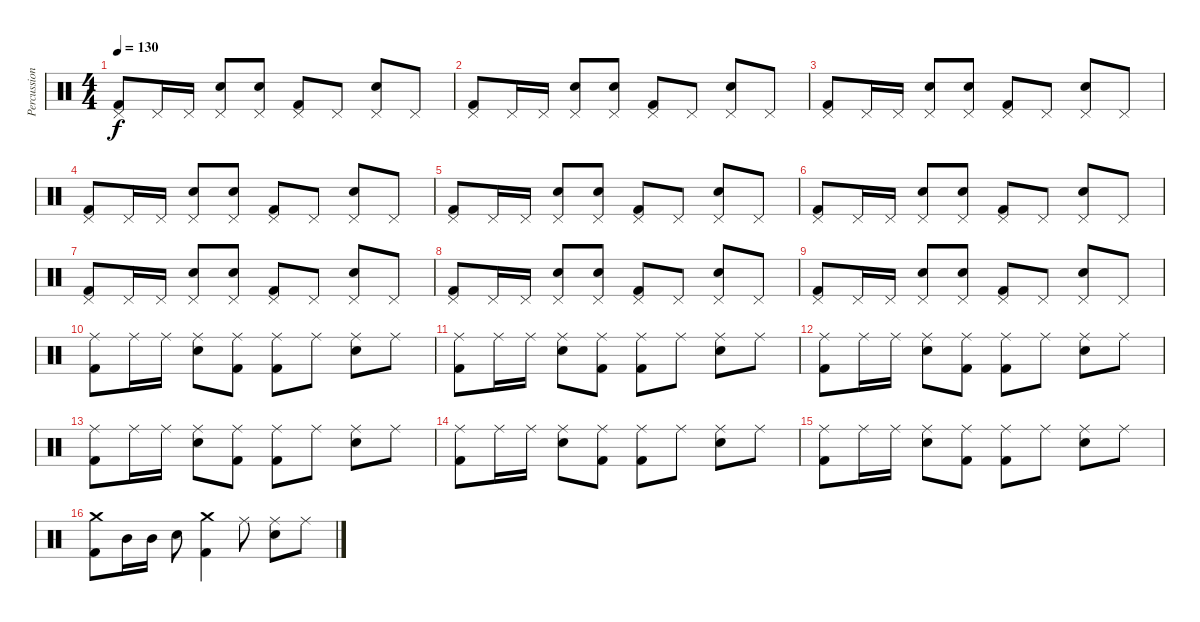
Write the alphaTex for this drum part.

\track ("Percussion" "Percussion") {instrument percussion}
\staff {score}
\articulation defaults
\ts (4 4)
\tempo 130
\clef neutral
\ks c
("Pedal Hi-Hat (hit)" "Kick (hit) 2").8{dy f} "Pedal Hi-Hat (hit)".16 "Pedal Hi-Hat (hit)".16 ("Pedal Hi-Hat (hit)" "Snare (hit) 2").8 ("Pedal Hi-Hat (hit)" "Snare (hit) 2").8 ("Pedal Hi-Hat (hit)" "Kick (hit) 2").8 "Pedal Hi-Hat (hit)".8 ("Pedal Hi-Hat (hit)" "Snare (hit) 2").8 "Pedal Hi-Hat (hit)".8 |
("Pedal Hi-Hat (hit)" "Kick (hit) 2").8 "Pedal Hi-Hat (hit)".16 "Pedal Hi-Hat (hit)".16 ("Pedal Hi-Hat (hit)" "Snare (hit) 2").8 ("Pedal Hi-Hat (hit)" "Snare (hit) 2").8 ("Pedal Hi-Hat (hit)" "Kick (hit) 2").8 "Pedal Hi-Hat (hit)".8 ("Pedal Hi-Hat (hit)" "Snare (hit) 2").8 "Pedal Hi-Hat (hit)".8 |
("Pedal Hi-Hat (hit)" "Kick (hit) 2").8 "Pedal Hi-Hat (hit)".16 "Pedal Hi-Hat (hit)".16 ("Pedal Hi-Hat (hit)" "Snare (hit) 2").8 ("Pedal Hi-Hat (hit)" "Snare (hit) 2").8 ("Pedal Hi-Hat (hit)" "Kick (hit) 2").8 "Pedal Hi-Hat (hit)".8 ("Pedal Hi-Hat (hit)" "Snare (hit) 2").8 "Pedal Hi-Hat (hit)".8 |
("Pedal Hi-Hat (hit)" "Kick (hit) 2").8 "Pedal Hi-Hat (hit)".16 "Pedal Hi-Hat (hit)".16 ("Pedal Hi-Hat (hit)" "Snare (hit) 2").8 ("Pedal Hi-Hat (hit)" "Snare (hit) 2").8 ("Pedal Hi-Hat (hit)" "Kick (hit) 2").8 "Pedal Hi-Hat (hit)".8 ("Pedal Hi-Hat (hit)" "Snare (hit) 2").8 "Pedal Hi-Hat (hit)".8 |
("Pedal Hi-Hat (hit)" "Kick (hit) 2").8 "Pedal Hi-Hat (hit)".16 "Pedal Hi-Hat (hit)".16 ("Pedal Hi-Hat (hit)" "Snare (hit) 2").8 ("Pedal Hi-Hat (hit)" "Snare (hit) 2").8 ("Pedal Hi-Hat (hit)" "Kick (hit) 2").8 "Pedal Hi-Hat (hit)".8 ("Pedal Hi-Hat (hit)" "Snare (hit) 2").8 "Pedal Hi-Hat (hit)".8 |
("Pedal Hi-Hat (hit)" "Kick (hit) 2").8 "Pedal Hi-Hat (hit)".16 "Pedal Hi-Hat (hit)".16 ("Pedal Hi-Hat (hit)" "Snare (hit) 2").8 ("Pedal Hi-Hat (hit)" "Snare (hit) 2").8 ("Pedal Hi-Hat (hit)" "Kick (hit) 2").8 "Pedal Hi-Hat (hit)".8 ("Pedal Hi-Hat (hit)" "Snare (hit) 2").8 "Pedal Hi-Hat (hit)".8 |
("Pedal Hi-Hat (hit)" "Kick (hit) 2").8 "Pedal Hi-Hat (hit)".16 "Pedal Hi-Hat (hit)".16 ("Pedal Hi-Hat (hit)" "Snare (hit) 2").8 ("Pedal Hi-Hat (hit)" "Snare (hit) 2").8 ("Pedal Hi-Hat (hit)" "Kick (hit) 2").8 "Pedal Hi-Hat (hit)".8 ("Pedal Hi-Hat (hit)" "Snare (hit) 2").8 "Pedal Hi-Hat (hit)".8 |
("Pedal Hi-Hat (hit)" "Kick (hit) 2").8 "Pedal Hi-Hat (hit)".16 "Pedal Hi-Hat (hit)".16 ("Pedal Hi-Hat (hit)" "Snare (hit) 2").8 ("Pedal Hi-Hat (hit)" "Snare (hit) 2").8 ("Pedal Hi-Hat (hit)" "Kick (hit) 2").8 "Pedal Hi-Hat (hit)".8 ("Pedal Hi-Hat (hit)" "Snare (hit) 2").8 "Pedal Hi-Hat (hit)".8 |
("Pedal Hi-Hat (hit)" "Kick (hit) 2").8 "Pedal Hi-Hat (hit)".16 "Pedal Hi-Hat (hit)".16 ("Pedal Hi-Hat (hit)" "Snare (hit) 2").8 ("Pedal Hi-Hat (hit)" "Snare (hit) 2").8 ("Pedal Hi-Hat (hit)" "Kick (hit) 2").8 "Pedal Hi-Hat (hit)".8 ("Pedal Hi-Hat (hit)" "Snare (hit) 2").8 "Pedal Hi-Hat (hit)".8 |
("Ride (middle)" "Kick (hit) 2").8 "Ride (middle)".16 "Ride (middle)".16 ("Ride (middle)" "Snare (hit) 2").8 ("Ride (middle)" "Kick (hit) 2").8 ("Ride (middle)" "Kick (hit) 2").8 "Ride (middle)".8 ("Ride (middle)" "Snare (hit) 2").8 "Ride (middle)".8 |
("Ride (middle)" "Kick (hit) 2").8 "Ride (middle)".16 "Ride (middle)".16 ("Ride (middle)" "Snare (hit) 2").8 ("Ride (middle)" "Kick (hit) 2").8 ("Ride (middle)" "Kick (hit) 2").8 "Ride (middle)".8 ("Ride (middle)" "Snare (hit) 2").8 "Ride (middle)".8 |
("Ride (middle)" "Kick (hit) 2").8 "Ride (middle)".16 "Ride (middle)".16 ("Ride (middle)" "Snare (hit) 2").8 ("Ride (middle)" "Kick (hit) 2").8 ("Ride (middle)" "Kick (hit) 2").8 "Ride (middle)".8 ("Ride (middle)" "Snare (hit) 2").8 "Ride (middle)".8 |
("Ride (middle)" "Kick (hit) 2").8 "Ride (middle)".16 "Ride (middle)".16 ("Ride (middle)" "Snare (hit) 2").8 ("Ride (middle)" "Kick (hit) 2").8 ("Ride (middle)" "Kick (hit) 2").8 "Ride (middle)".8 ("Ride (middle)" "Snare (hit) 2").8 "Ride (middle)".8 |
("Ride (middle)" "Kick (hit) 2").8 "Ride (middle)".16 "Ride (middle)".16 ("Ride (middle)" "Snare (hit) 2").8 ("Ride (middle)" "Kick (hit) 2").8 ("Ride (middle)" "Kick (hit) 2").8 "Ride (middle)".8 ("Ride (middle)" "Snare (hit) 2").8 "Ride (middle)".8 |
("Ride (middle)" "Kick (hit) 2").8 "Ride (middle)".16 "Ride (middle)".16 ("Ride (middle)" "Snare (hit) 2").8 ("Ride (middle)" "Kick (hit) 2").8 ("Ride (middle)" "Kick (hit) 2").8 "Ride (middle)".8 ("Ride (middle)" "Snare (hit) 2").8 "Ride (middle)".8 |
("Crash medium (hit)" "Kick (hit) 2").8 "Mid Tom (hit)".16 "Mid Tom (hit)".16 "Snare (hit) 2".8 ("Crash medium (hit)" "Kick (hit) 2").4 "Ride (middle)".8 ("Ride (middle)" "Snare (hit) 2").8 "Ride (middle)".8
